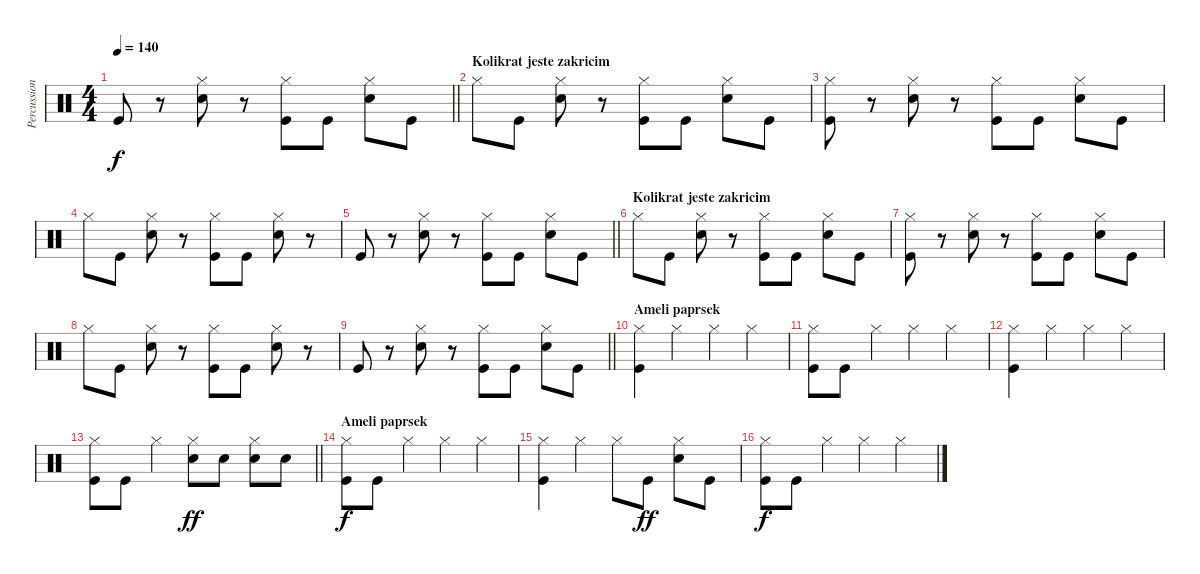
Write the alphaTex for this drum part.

\track ("Percussion" "Percussion") {instrument percussion}
\staff {score}
\articulation defaults
\ts (4 4)
\tempo 140
\clef neutral
\barLineRight lightlight
\ks c "Kick (hit)".8{dy f}
r.8 ("Electric Snare (hit)" "Hi-Hat (closed)").8 r.8 ("Kick (hit)" "Hi-Hat (closed)").8 "Kick (hit)".8 ("Electric Snare (hit)" "Hi-Hat (closed)").8 "Kick (hit)".8 |
\section ("" "Kolikrat jeste zakricim")
"Hi-Hat (closed)".8 "Kick (hit)".8 ("Electric Snare (hit)" "Hi-Hat (closed)").8 r.8 ("Kick (hit)" "Hi-Hat (closed)").8 "Kick (hit)".8 ("Electric Snare (hit)" "Hi-Hat (closed)").8 "Kick (hit)".8 |
("Kick (hit)" "Hi-Hat (closed)").8 r.8 ("Electric Snare (hit)" "Hi-Hat (closed)").8 r.8 ("Kick (hit)" "Hi-Hat (closed)").8 "Kick (hit)".8 ("Electric Snare (hit)" "Hi-Hat (closed)").8 "Kick (hit)".8 |
"Hi-Hat (closed)".8 "Kick (hit)".8 ("Electric Snare (hit)" "Hi-Hat (closed)").8 r.8 ("Kick (hit)" "Hi-Hat (closed)").8 "Kick (hit)".8 ("Electric Snare (hit)" "Hi-Hat (closed)").8 r.8 |
\barLineRight lightlight "Kick (hit)".8
r.8 ("Electric Snare (hit)" "Hi-Hat (closed)").8 r.8 ("Kick (hit)" "Hi-Hat (closed)").8 "Kick (hit)".8 ("Electric Snare (hit)" "Hi-Hat (closed)").8 "Kick (hit)".8 |
\section ("" "Kolikrat jeste zakricim")
"Hi-Hat (closed)".8 "Kick (hit)".8 ("Electric Snare (hit)" "Hi-Hat (closed)").8 r.8 ("Kick (hit)" "Hi-Hat (closed)").8 "Kick (hit)".8 ("Electric Snare (hit)" "Hi-Hat (closed)").8 "Kick (hit)".8 |
("Kick (hit)" "Hi-Hat (closed)").8 r.8 ("Electric Snare (hit)" "Hi-Hat (closed)").8 r.8 ("Kick (hit)" "Hi-Hat (closed)").8 "Kick (hit)".8 ("Electric Snare (hit)" "Hi-Hat (closed)").8 "Kick (hit)".8 |
"Hi-Hat (closed)".8 "Kick (hit)".8 ("Electric Snare (hit)" "Hi-Hat (closed)").8 r.8 ("Kick (hit)" "Hi-Hat (closed)").8 "Kick (hit)".8 ("Electric Snare (hit)" "Hi-Hat (closed)").8 r.8 |
\barLineRight lightlight "Kick (hit)".8
r.8 ("Electric Snare (hit)" "Hi-Hat (closed)").8 r.8 ("Kick (hit)" "Hi-Hat (closed)").8 "Kick (hit)".8 ("Electric Snare (hit)" "Hi-Hat (closed)").8 "Kick (hit)".8 |
\section ("" "Ameli paprsek")
("Hi-Hat (closed)" "Kick (hit)").4 "Hi-Hat (closed)".4 "Hi-Hat (closed)".4 "Hi-Hat (closed)".4 |
("Hi-Hat (closed)" "Kick (hit)").8 "Kick (hit)".8 "Hi-Hat (closed)".4 "Hi-Hat (closed)".4 "Hi-Hat (closed)".4 |
("Hi-Hat (closed)" "Kick (hit)").4 "Hi-Hat (closed)".4 "Hi-Hat (closed)".4 "Hi-Hat (closed)".4 |
\barLineRight lightlight
("Hi-Hat (closed)" "Kick (hit)").8 "Kick (hit)".8 "Hi-Hat (closed)".4 ("Hi-Hat (closed)" "Electric Snare (hit)").8{dy ff} "Electric Snare (hit)".8 ("Hi-Hat (closed)" "Electric Snare (hit)").8 "Electric Snare (hit)".8 |
\section ("" "Ameli paprsek")
("Hi-Hat (closed)" "Kick (hit)").8{dy f} "Kick (hit)".8 "Hi-Hat (closed)".4 "Hi-Hat (closed)".4 "Hi-Hat (closed)".4 |
("Hi-Hat (closed)" "Kick (hit)").4 "Hi-Hat (closed)".4 "Hi-Hat (closed)".8 "Kick (hit)".8{dy ff} ("Hi-Hat (closed)" "Electric Snare (hit)").8 "Kick (hit)".8 |
("Hi-Hat (closed)" "Kick (hit)").8{dy f} "Kick (hit)".8 "Hi-Hat (closed)".4 "Hi-Hat (closed)".4 "Hi-Hat (closed)".4
